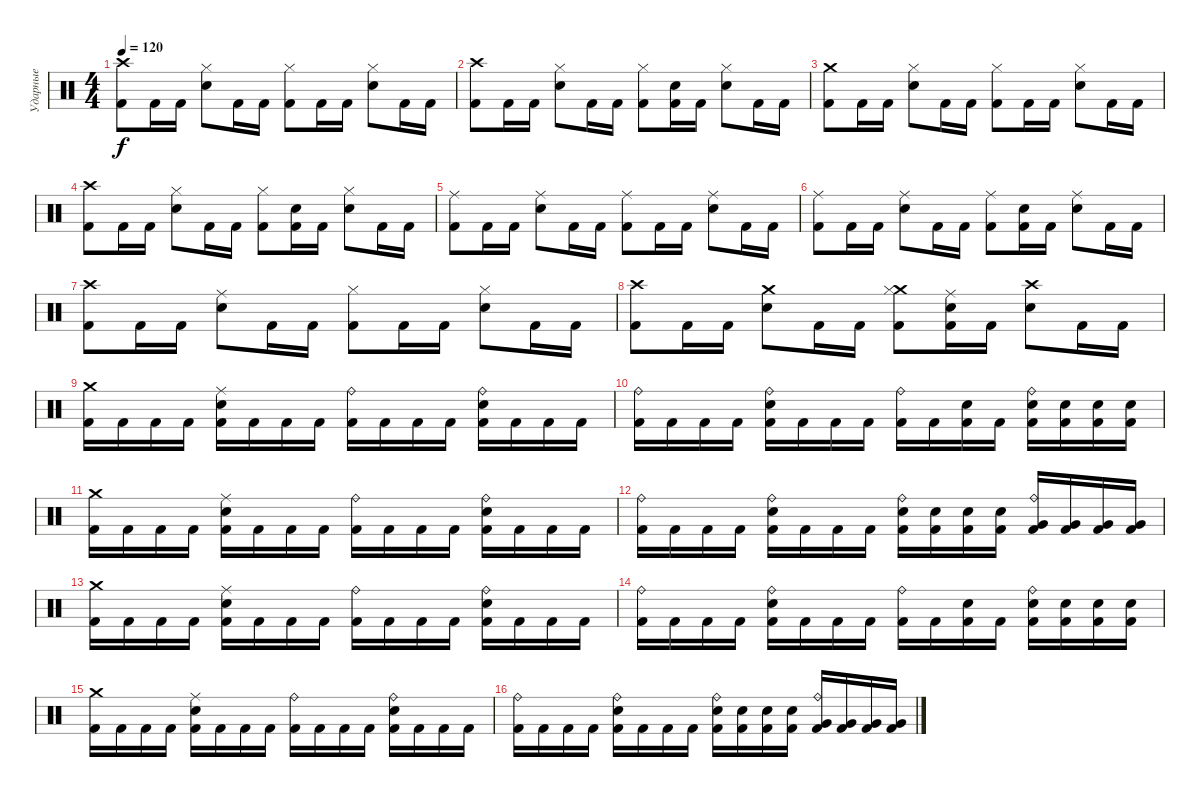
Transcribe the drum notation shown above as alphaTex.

\track ("Ударные" "Ударные") {instrument percussion}
\staff {score}
\articulation defaults
\ts (4 4)
\tempo 120
\clef neutral
\ks c
("Crash high (hit)" "Kick (hit) 2").8{dy f} "Kick (hit) 2".16 "Kick (hit) 2".16 ("Hi-Hat (closed)" "Electric Snare (hit)").8 "Kick (hit) 2".16 "Kick (hit) 2".16 ("Hi-Hat (closed)" "Kick (hit) 2").8 "Kick (hit) 2".16 "Kick (hit) 2".16 ("Hi-Hat (closed)" "Electric Snare (hit)").8 "Kick (hit) 2".16 "Kick (hit) 2".16 |
("Crash high (hit)" "Kick (hit) 2").8 "Kick (hit) 2".16 "Kick (hit) 2".16 ("Hi-Hat (closed)" "Electric Snare (hit)").8 "Kick (hit) 2".16 "Kick (hit) 2".16 ("Hi-Hat (closed)" "Kick (hit) 2").8 ("Electric Snare (hit)" "Kick (hit) 2").16 "Kick (hit) 2".16 ("Hi-Hat (closed)" "Electric Snare (hit)").8 "Kick (hit) 2".16 "Kick (hit) 2".16 |
("Crash medium (hit)" "Kick (hit) 2").8 "Kick (hit) 2".16 "Kick (hit) 2".16 ("Hi-Hat (closed)" "Electric Snare (hit)").8 "Kick (hit) 2".16 "Kick (hit) 2".16 ("Hi-Hat (closed)" "Kick (hit) 2").8 "Kick (hit) 2".16 "Kick (hit) 2".16 ("Hi-Hat (closed)" "Electric Snare (hit)").8 "Kick (hit) 2".16 "Kick (hit) 2".16 |
("Crash high (hit)" "Kick (hit) 2").8 "Kick (hit) 2".16 "Kick (hit) 2".16 ("Hi-Hat (closed)" "Electric Snare (hit)").8 "Kick (hit) 2".16 "Kick (hit) 2".16 ("Hi-Hat (closed)" "Kick (hit) 2").8 ("Electric Snare (hit)" "Kick (hit) 2").16 "Kick (hit) 2".16 ("Hi-Hat (closed)" "Electric Snare (hit)").8 "Kick (hit) 2".16 "Kick (hit) 2".16 |
("Ride (middle)" "Kick (hit) 2").8 "Kick (hit) 2".16 "Kick (hit) 2".16 ("Ride (middle)" "Electric Snare (hit)").8 "Kick (hit) 2".16 "Kick (hit) 2".16 ("Ride (middle)" "Kick (hit) 2").8 "Kick (hit) 2".16 "Kick (hit) 2".16 ("Ride (middle)" "Electric Snare (hit)").8 "Kick (hit) 2".16 "Kick (hit) 2".16 |
("Ride (middle)" "Kick (hit) 2").8 "Kick (hit) 2".16 "Kick (hit) 2".16 ("Ride (middle)" "Electric Snare (hit)").8 "Kick (hit) 2".16 "Kick (hit) 2".16 ("Ride (middle)" "Kick (hit) 2").8 ("Electric Snare (hit)" "Kick (hit) 2").16 "Kick (hit) 2".16 ("Ride (middle)" "Electric Snare (hit)").8 "Kick (hit) 2".16 "Kick (hit) 2".16 |
("Crash high (hit)" "Kick (hit) 2").8 "Kick (hit) 2".16 "Kick (hit) 2".16 ("Ride (middle)" "Electric Snare (hit)").8 "Kick (hit) 2".16 "Kick (hit) 2".16 ("Hi-Hat (closed)" "Kick (hit) 2").8 "Kick (hit) 2".16 "Kick (hit) 2".16 ("Hi-Hat (closed)" "Electric Snare (hit)").8 "Kick (hit) 2".16 "Kick (hit) 2".16 |
("Crash high (hit)" "Kick (hit) 2").8 "Kick (hit) 2".16 "Kick (hit) 2".16 ("Crash medium (hit)" "Electric Snare (hit)").8 "Kick (hit) 2".16 "Kick (hit) 2".16 ("Crash medium (hit)" "Hi-Hat (closed)" "Kick (hit) 2").8 ("Ride (middle)" "Electric Snare (hit)" "Kick (hit) 2").16 "Kick (hit) 2".16 ("Crash high (hit)" "Electric Snare (hit)").8 "Kick (hit) 2".16 "Kick (hit) 2".16 |
("Crash medium (hit)" "Kick (hit) 2").16 "Kick (hit) 2".16 "Kick (hit) 2".16 "Kick (hit) 2".16 ("Ride (middle)" "Electric Snare (hit)" "Kick (hit) 2").16 "Kick (hit) 2".16 "Kick (hit) 2".16 "Kick (hit) 2".16 ("Ride (bell)" "Kick (hit) 2").16 "Kick (hit) 2".16 "Kick (hit) 2".16 "Kick (hit) 2".16 ("Ride (bell)" "Electric Snare (hit)" "Kick (hit) 2").16 "Kick (hit) 2".16 "Kick (hit) 2".16 "Kick (hit) 2".16 |
("Ride (bell)" "Kick (hit) 2").16 "Kick (hit) 2".16 "Kick (hit) 2".16 "Kick (hit) 2".16 ("Ride (bell)" "Electric Snare (hit)" "Kick (hit) 2").16 "Kick (hit) 2".16 "Kick (hit) 2".16 "Kick (hit) 2".16 ("Ride (bell)" "Kick (hit) 2").16 "Kick (hit) 2".16 ("Electric Snare (hit)" "Kick (hit) 2").16 "Kick (hit) 2".16 ("Ride (bell)" "Electric Snare (hit)" "Kick (hit) 2").16 ("Electric Snare (hit)" "Kick (hit) 2").16 ("Electric Snare (hit)" "Kick (hit) 2").16 ("Electric Snare (hit)" "Kick (hit) 2").16 |
("Crash medium (hit)" "Kick (hit) 2").16 "Kick (hit) 2".16 "Kick (hit) 2".16 "Kick (hit) 2".16 ("Ride (middle)" "Electric Snare (hit)" "Kick (hit) 2").16 "Kick (hit) 2".16 "Kick (hit) 2".16 "Kick (hit) 2".16 ("Ride (bell)" "Kick (hit) 2").16 "Kick (hit) 2".16 "Kick (hit) 2".16 "Kick (hit) 2".16 ("Ride (bell)" "Electric Snare (hit)" "Kick (hit) 2").16 "Kick (hit) 2".16 "Kick (hit) 2".16 "Kick (hit) 2".16 |
("Ride (bell)" "Kick (hit) 2").16 "Kick (hit) 2".16 "Kick (hit) 2".16 "Kick (hit) 2".16 ("Ride (bell)" "Electric Snare (hit)" "Kick (hit) 2").16 "Kick (hit) 2".16 "Kick (hit) 2".16 "Kick (hit) 2".16 ("Ride (bell)" "Electric Snare (hit)" "Kick (hit) 2").16 ("Electric Snare (hit)" "Kick (hit) 2").16 ("Electric Snare (hit)" "Kick (hit) 2").16 ("Electric Snare (hit)" "Kick (hit) 2").16 ("Ride (bell)" "Very Low Tom (hit)" "Kick (hit) 2").16 ("Very Low Tom (hit)" "Kick (hit) 2").16 ("Very Low Tom (hit)" "Kick (hit) 2").16 ("Very Low Tom (hit)" "Kick (hit) 2").16 |
("Crash medium (hit)" "Kick (hit) 2").16 "Kick (hit) 2".16 "Kick (hit) 2".16 "Kick (hit) 2".16 ("Ride (middle)" "Electric Snare (hit)" "Kick (hit) 2").16 "Kick (hit) 2".16 "Kick (hit) 2".16 "Kick (hit) 2".16 ("Ride (bell)" "Kick (hit) 2").16 "Kick (hit) 2".16 "Kick (hit) 2".16 "Kick (hit) 2".16 ("Ride (bell)" "Electric Snare (hit)" "Kick (hit) 2").16 "Kick (hit) 2".16 "Kick (hit) 2".16 "Kick (hit) 2".16 |
("Ride (bell)" "Kick (hit) 2").16 "Kick (hit) 2".16 "Kick (hit) 2".16 "Kick (hit) 2".16 ("Ride (bell)" "Electric Snare (hit)" "Kick (hit) 2").16 "Kick (hit) 2".16 "Kick (hit) 2".16 "Kick (hit) 2".16 ("Ride (bell)" "Kick (hit) 2").16 "Kick (hit) 2".16 ("Electric Snare (hit)" "Kick (hit) 2").16 "Kick (hit) 2".16 ("Ride (bell)" "Electric Snare (hit)" "Kick (hit) 2").16 ("Electric Snare (hit)" "Kick (hit) 2").16 ("Electric Snare (hit)" "Kick (hit) 2").16 ("Electric Snare (hit)" "Kick (hit) 2").16 |
("Crash medium (hit)" "Kick (hit) 2").16 "Kick (hit) 2".16 "Kick (hit) 2".16 "Kick (hit) 2".16 ("Ride (middle)" "Electric Snare (hit)" "Kick (hit) 2").16 "Kick (hit) 2".16 "Kick (hit) 2".16 "Kick (hit) 2".16 ("Ride (bell)" "Kick (hit) 2").16 "Kick (hit) 2".16 "Kick (hit) 2".16 "Kick (hit) 2".16 ("Ride (bell)" "Electric Snare (hit)" "Kick (hit) 2").16 "Kick (hit) 2".16 "Kick (hit) 2".16 "Kick (hit) 2".16 |
("Ride (bell)" "Kick (hit) 2").16 "Kick (hit) 2".16 "Kick (hit) 2".16 "Kick (hit) 2".16 ("Ride (bell)" "Electric Snare (hit)" "Kick (hit) 2").16 "Kick (hit) 2".16 "Kick (hit) 2".16 "Kick (hit) 2".16 ("Ride (bell)" "Electric Snare (hit)" "Kick (hit) 2").16 ("Electric Snare (hit)" "Kick (hit) 2").16 ("Electric Snare (hit)" "Kick (hit) 2").16 ("Electric Snare (hit)" "Kick (hit) 2").16 ("Ride (bell)" "Very Low Tom (hit)" "Kick (hit) 2").16 ("Very Low Tom (hit)" "Kick (hit) 2").16 ("Very Low Tom (hit)" "Kick (hit) 2").16 ("Very Low Tom (hit)" "Kick (hit) 2").16
